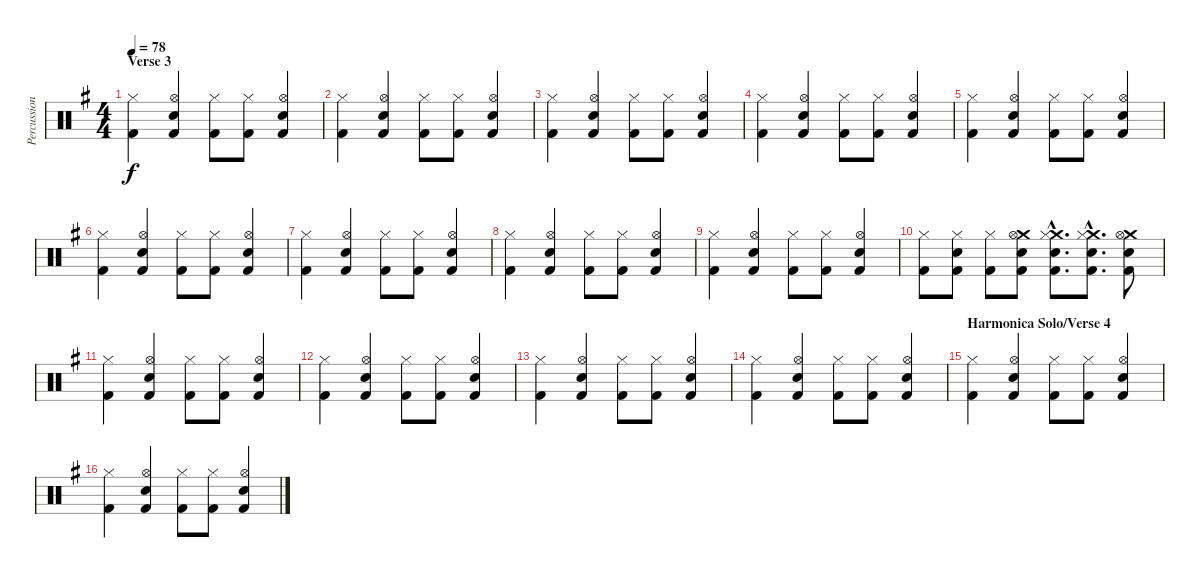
\track ("Percussion" "Percussion") {instrument percussion}
\staff {score}
\articulation defaults
\ts (4 4)
\section ("" "Verse 3")
\tempo 78
\clef neutral
\ks g
("Hi-Hat (closed)" "Kick (hit) 2").4{dy f} ("Hi-Hat (open)" "Snare (hit) 2" "Kick (hit) 2").4 ("Hi-Hat (closed)" "Kick (hit) 2").8 ("Hi-Hat (closed)" "Kick (hit) 2").8 ("Hi-Hat (open)" "Snare (hit) 2" "Kick (hit) 2").4 |
("Hi-Hat (closed)" "Kick (hit) 2").4 ("Hi-Hat (open)" "Snare (hit) 2" "Kick (hit) 2").4 ("Hi-Hat (closed)" "Kick (hit) 2").8 ("Hi-Hat (closed)" "Kick (hit) 2").8 ("Hi-Hat (open)" "Snare (hit) 2" "Kick (hit) 2").4 |
("Hi-Hat (closed)" "Kick (hit) 2").4 ("Hi-Hat (open)" "Snare (hit) 2" "Kick (hit) 2").4 ("Hi-Hat (closed)" "Kick (hit) 2").8 ("Hi-Hat (closed)" "Kick (hit) 2").8 ("Hi-Hat (open)" "Snare (hit) 2" "Kick (hit) 2").4 |
("Hi-Hat (closed)" "Kick (hit) 2").4 ("Hi-Hat (open)" "Snare (hit) 2" "Kick (hit) 2").4 ("Hi-Hat (closed)" "Kick (hit) 2").8 ("Hi-Hat (closed)" "Kick (hit) 2").8 ("Hi-Hat (open)" "Snare (hit) 2" "Kick (hit) 2").4 |
("Hi-Hat (closed)" "Kick (hit) 2").4 ("Hi-Hat (open)" "Snare (hit) 2" "Kick (hit) 2").4 ("Hi-Hat (closed)" "Kick (hit) 2").8 ("Hi-Hat (closed)" "Kick (hit) 2").8 ("Hi-Hat (open)" "Snare (hit) 2" "Kick (hit) 2").4 |
("Hi-Hat (closed)" "Kick (hit) 2").4 ("Hi-Hat (open)" "Snare (hit) 2" "Kick (hit) 2").4 ("Hi-Hat (closed)" "Kick (hit) 2").8 ("Hi-Hat (closed)" "Kick (hit) 2").8 ("Hi-Hat (open)" "Snare (hit) 2" "Kick (hit) 2").4 |
("Hi-Hat (closed)" "Kick (hit) 2").4 ("Hi-Hat (open)" "Snare (hit) 2" "Kick (hit) 2").4 ("Hi-Hat (closed)" "Kick (hit) 2").8 ("Hi-Hat (closed)" "Kick (hit) 2").8 ("Hi-Hat (open)" "Snare (hit) 2" "Kick (hit) 2").4 |
("Hi-Hat (closed)" "Kick (hit) 2").4 ("Hi-Hat (open)" "Snare (hit) 2" "Kick (hit) 2").4 ("Hi-Hat (closed)" "Kick (hit) 2").8 ("Hi-Hat (closed)" "Kick (hit) 2").8 ("Hi-Hat (open)" "Snare (hit) 2" "Kick (hit) 2").4 |
("Hi-Hat (closed)" "Kick (hit) 2").4 ("Hi-Hat (open)" "Snare (hit) 2" "Kick (hit) 2").4 ("Hi-Hat (closed)" "Kick (hit) 2").8 ("Hi-Hat (closed)" "Kick (hit) 2").8 ("Hi-Hat (open)" "Snare (hit) 2" "Kick (hit) 2").4 |
("Hi-Hat (closed)" "Kick (hit) 2").8 ("Hi-Hat (closed)" "Snare (hit) 2" "Kick (hit) 2").8 ("Hi-Hat (closed)" "Kick (hit) 2").8 ("Crash medium (hit)" "Hi-Hat (open)" "Snare (hit) 2" "Kick (hit) 2").8 ("Crash medium (hit)"{hac} "Hi-Hat (closed)"{hac} "Snare (hit) 2"{hac} "Kick (hit) 2"{hac}).8{d} ("Crash medium (hit)"{hac} "Hi-Hat (closed)"{hac} "Snare (hit) 2"{hac} "Kick (hit) 2"{hac}).8{d} ("Crash medium (hit)" "Hi-Hat (open)" "Snare (hit) 2" "Kick (hit) 2").8 |
("Hi-Hat (closed)" "Kick (hit) 2").4 ("Hi-Hat (open)" "Snare (hit) 2" "Kick (hit) 2").4 ("Hi-Hat (closed)" "Kick (hit) 2").8 ("Hi-Hat (closed)" "Kick (hit) 2").8 ("Hi-Hat (open)" "Snare (hit) 2" "Kick (hit) 2").4 |
("Hi-Hat (closed)" "Kick (hit) 2").4 ("Hi-Hat (open)" "Snare (hit) 2" "Kick (hit) 2").4 ("Hi-Hat (closed)" "Kick (hit) 2").8 ("Hi-Hat (closed)" "Kick (hit) 2").8 ("Hi-Hat (open)" "Snare (hit) 2" "Kick (hit) 2").4 |
("Hi-Hat (closed)" "Kick (hit) 2").4 ("Hi-Hat (open)" "Snare (hit) 2" "Kick (hit) 2").4 ("Hi-Hat (closed)" "Kick (hit) 2").8 ("Hi-Hat (closed)" "Kick (hit) 2").8 ("Hi-Hat (open)" "Snare (hit) 2" "Kick (hit) 2").4 |
("Hi-Hat (closed)" "Kick (hit) 2").4 ("Hi-Hat (open)" "Snare (hit) 2" "Kick (hit) 2").4 ("Hi-Hat (closed)" "Kick (hit) 2").8 ("Hi-Hat (closed)" "Kick (hit) 2").8 ("Hi-Hat (open)" "Snare (hit) 2" "Kick (hit) 2").4 |
\section ("" "Harmonica Solo/Verse 4")
("Hi-Hat (closed)" "Kick (hit) 2").4 ("Hi-Hat (open)" "Snare (hit) 2" "Kick (hit) 2").4 ("Hi-Hat (closed)" "Kick (hit) 2").8 ("Hi-Hat (closed)" "Kick (hit) 2").8 ("Hi-Hat (open)" "Snare (hit) 2" "Kick (hit) 2").4 |
("Hi-Hat (closed)" "Kick (hit) 2").4 ("Hi-Hat (open)" "Snare (hit) 2" "Kick (hit) 2").4 ("Hi-Hat (closed)" "Kick (hit) 2").8 ("Hi-Hat (closed)" "Kick (hit) 2").8 ("Hi-Hat (open)" "Snare (hit) 2" "Kick (hit) 2").4
